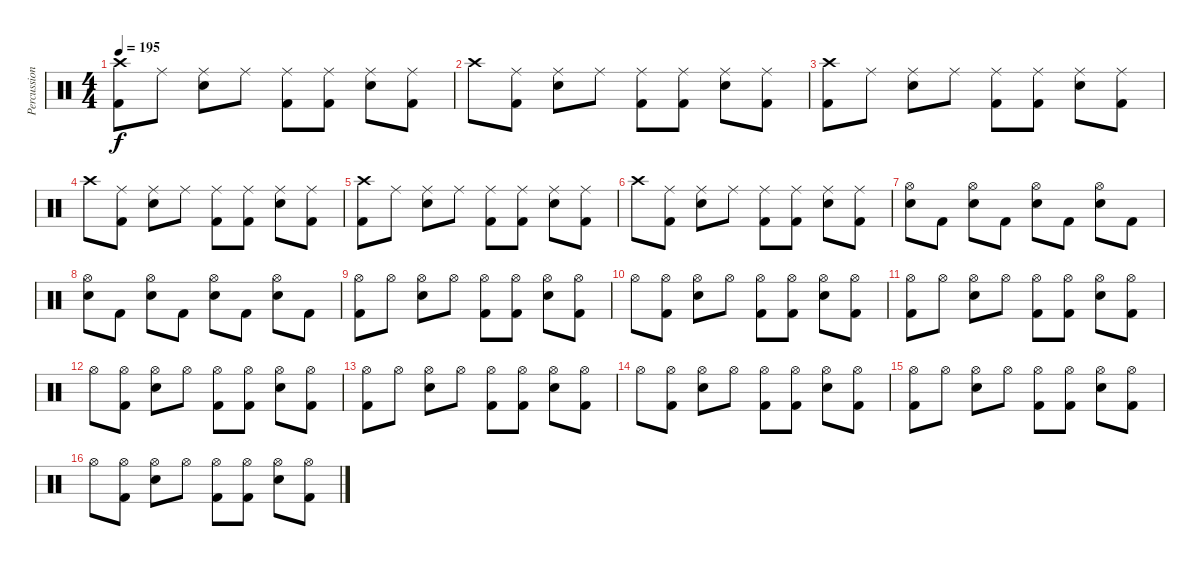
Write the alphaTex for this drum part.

\track ("Percussion" "Percussion") {instrument percussion}
\staff {score}
\articulation defaults
\ts (4 4)
\tempo 195
\clef neutral
\ks c
("Crash high (hit)" "Kick (hit) 2").8{dy f} "Ride (middle)".8 ("Ride (middle)" "Electric Snare (hit)").8 "Ride (middle)".8 ("Ride (middle)" "Kick (hit) 2").8 ("Ride (middle)" "Kick (hit) 2").8 ("Ride (middle)" "Electric Snare (hit)").8 ("Ride (middle)" "Kick (hit) 2").8 |
"Crash high (hit)".8 ("Ride (middle)" "Kick (hit) 2").8 ("Ride (middle)" "Electric Snare (hit)").8 "Ride (middle)".8 ("Ride (middle)" "Kick (hit) 2").8 ("Ride (middle)" "Kick (hit) 2").8 ("Ride (middle)" "Electric Snare (hit)").8 ("Ride (middle)" "Kick (hit) 2").8 |
("Crash high (hit)" "Kick (hit) 2").8 "Ride (middle)".8 ("Ride (middle)" "Electric Snare (hit)").8 "Ride (middle)".8 ("Ride (middle)" "Kick (hit) 2").8 ("Ride (middle)" "Kick (hit) 2").8 ("Ride (middle)" "Electric Snare (hit)").8 ("Ride (middle)" "Kick (hit) 2").8 |
"Crash high (hit)".8 ("Ride (middle)" "Kick (hit) 2").8 ("Ride (middle)" "Electric Snare (hit)").8 "Ride (middle)".8 ("Ride (middle)" "Kick (hit) 2").8 ("Ride (middle)" "Kick (hit) 2").8 ("Ride (middle)" "Electric Snare (hit)").8 ("Ride (middle)" "Kick (hit) 2").8 |
("Crash high (hit)" "Kick (hit) 2").8 "Ride (middle)".8 ("Ride (middle)" "Electric Snare (hit)").8 "Ride (middle)".8 ("Ride (middle)" "Kick (hit) 2").8 ("Ride (middle)" "Kick (hit) 2").8 ("Ride (middle)" "Electric Snare (hit)").8 ("Ride (middle)" "Kick (hit) 2").8 |
"Crash high (hit)".8 ("Ride (middle)" "Kick (hit) 2").8 ("Ride (middle)" "Electric Snare (hit)").8 "Ride (middle)".8 ("Ride (middle)" "Kick (hit) 2").8 ("Ride (middle)" "Kick (hit) 2").8 ("Ride (middle)" "Electric Snare (hit)").8 ("Ride (middle)" "Kick (hit) 2").8 |
("Hi-Hat (open)" "Electric Snare (hit)").8 "Kick (hit) 2".8 ("Hi-Hat (open)" "Electric Snare (hit)").8 "Kick (hit) 2".8 ("Hi-Hat (open)" "Electric Snare (hit)").8 "Kick (hit) 2".8 ("Hi-Hat (open)" "Electric Snare (hit)").8 "Kick (hit) 2".8 |
("Hi-Hat (open)" "Electric Snare (hit)").8 "Kick (hit) 2".8 ("Hi-Hat (open)" "Electric Snare (hit)").8 "Kick (hit) 2".8 ("Hi-Hat (open)" "Electric Snare (hit)").8 "Kick (hit) 2".8 ("Hi-Hat (open)" "Electric Snare (hit)").8 "Kick (hit) 2".8 |
("Hi-Hat (open)" "Kick (hit) 2").8 "Hi-Hat (open)".8 ("Hi-Hat (open)" "Electric Snare (hit)").8 "Hi-Hat (open)".8 ("Hi-Hat (open)" "Kick (hit) 2").8 ("Hi-Hat (open)" "Kick (hit) 2").8 ("Hi-Hat (open)" "Electric Snare (hit)").8 ("Hi-Hat (open)" "Kick (hit) 2").8 |
"Hi-Hat (open)".8 ("Hi-Hat (open)" "Kick (hit) 2").8 ("Hi-Hat (open)" "Electric Snare (hit)").8 "Hi-Hat (open)".8 ("Hi-Hat (open)" "Kick (hit) 2").8 ("Hi-Hat (open)" "Kick (hit) 2").8 ("Hi-Hat (open)" "Electric Snare (hit)").8 ("Hi-Hat (open)" "Kick (hit) 2").8 |
("Hi-Hat (open)" "Kick (hit) 2").8 "Hi-Hat (open)".8 ("Hi-Hat (open)" "Electric Snare (hit)").8 "Hi-Hat (open)".8 ("Hi-Hat (open)" "Kick (hit) 2").8 ("Hi-Hat (open)" "Kick (hit) 2").8 ("Hi-Hat (open)" "Electric Snare (hit)").8 ("Hi-Hat (open)" "Kick (hit) 2").8 |
"Hi-Hat (open)".8 ("Hi-Hat (open)" "Kick (hit) 2").8 ("Hi-Hat (open)" "Electric Snare (hit)").8 "Hi-Hat (open)".8 ("Hi-Hat (open)" "Kick (hit) 2").8 ("Hi-Hat (open)" "Kick (hit) 2").8 ("Hi-Hat (open)" "Electric Snare (hit)").8 ("Hi-Hat (open)" "Kick (hit) 2").8 |
("Hi-Hat (open)" "Kick (hit) 2").8 "Hi-Hat (open)".8 ("Hi-Hat (open)" "Electric Snare (hit)").8 "Hi-Hat (open)".8 ("Hi-Hat (open)" "Kick (hit) 2").8 ("Hi-Hat (open)" "Kick (hit) 2").8 ("Hi-Hat (open)" "Electric Snare (hit)").8 ("Hi-Hat (open)" "Kick (hit) 2").8 |
"Hi-Hat (open)".8 ("Hi-Hat (open)" "Kick (hit) 2").8 ("Hi-Hat (open)" "Electric Snare (hit)").8 "Hi-Hat (open)".8 ("Hi-Hat (open)" "Kick (hit) 2").8 ("Hi-Hat (open)" "Kick (hit) 2").8 ("Hi-Hat (open)" "Electric Snare (hit)").8 ("Hi-Hat (open)" "Kick (hit) 2").8 |
("Hi-Hat (open)" "Kick (hit) 2").8 "Hi-Hat (open)".8 ("Hi-Hat (open)" "Electric Snare (hit)").8 "Hi-Hat (open)".8 ("Hi-Hat (open)" "Kick (hit) 2").8 ("Hi-Hat (open)" "Kick (hit) 2").8 ("Hi-Hat (open)" "Electric Snare (hit)").8 ("Hi-Hat (open)" "Kick (hit) 2").8 |
"Hi-Hat (open)".8 ("Hi-Hat (open)" "Kick (hit) 2").8 ("Hi-Hat (open)" "Electric Snare (hit)").8 "Hi-Hat (open)".8 ("Hi-Hat (open)" "Kick (hit) 2").8 ("Hi-Hat (open)" "Kick (hit) 2").8 ("Hi-Hat (open)" "Electric Snare (hit)").8 ("Hi-Hat (open)" "Kick (hit) 2").8
